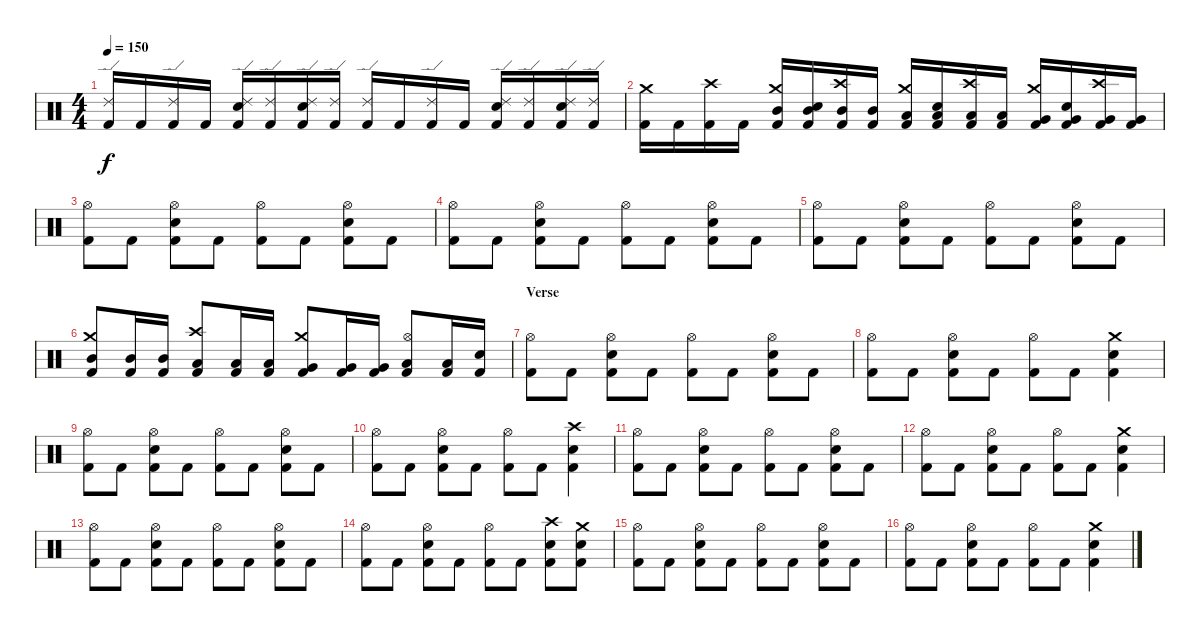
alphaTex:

\track "" {instrument percussion}
\staff {score}
\articulation defaults
\ts (4 4)
\tempo 150
\clef neutral
\ks c
("Ride (edge) 2" "Kick (hit) 2").16{dy f} "Kick (hit) 2".16 ("Ride (edge) 2" "Kick (hit) 2").16 "Kick (hit) 2".16 ("Ride (edge) 2" "Electric Snare (hit)" "Kick (hit) 2").16 ("Ride (edge) 2" "Kick (hit) 2").16 ("Ride (edge) 2" "Electric Snare (hit)" "Kick (hit) 2").16 ("Ride (edge) 2" "Kick (hit) 2").16 ("Ride (edge) 2" "Kick (hit) 2").16 "Kick (hit) 2".16 ("Ride (edge) 2" "Kick (hit) 2").16 "Kick (hit) 2".16 ("Ride (edge) 2" "Electric Snare (hit)" "Kick (hit) 2").16 ("Ride (edge) 2" "Kick (hit) 2").16 ("Ride (edge) 2" "Electric Snare (hit)" "Kick (hit) 2").16 ("Ride (edge) 2" "Kick (hit) 2").16 |
("Crash medium (hit)" "Kick (hit) 2").16 "Kick (hit) 2".16 ("Crash high (hit)" "Kick (hit) 2").16 "Kick (hit) 2".16 ("Crash medium (hit)" "Mid Tom (hit)" "Kick (hit) 2").16 ("Electric Snare (hit)" "Mid Tom (hit)" "Kick (hit) 2").16 ("Crash high (hit)" "Mid Tom (hit)" "Kick (hit) 2").16 ("Mid Tom (hit)" "Kick (hit) 2").16 ("Crash medium (hit)" "Low Tom (hit)" "Kick (hit) 2").16 ("Electric Snare (hit)" "Low Tom (hit)" "Kick (hit) 2").16 ("Crash high (hit)" "Low Tom (hit)" "Kick (hit) 2").16 ("Low Tom (hit)" "Kick (hit) 2").16 ("Crash medium (hit)" "Very Low Tom (hit)" "Kick (hit) 2").16 ("Electric Snare (hit)" "Very Low Tom (hit)" "Kick (hit) 2").16 ("Crash high (hit)" "Very Low Tom (hit)" "Kick (hit) 2").16 ("Very Low Tom (hit)" "Kick (hit) 2").16 |
("Hi-Hat (open)" "Kick (hit) 2").8 "Kick (hit) 2".8 ("Hi-Hat (open)" "Electric Snare (hit)" "Kick (hit) 2").8 "Kick (hit) 2".8 ("Hi-Hat (open)" "Kick (hit) 2").8 "Kick (hit) 2".8 ("Hi-Hat (open)" "Electric Snare (hit)" "Kick (hit) 2").8 "Kick (hit) 2".8 |
("Hi-Hat (open)" "Kick (hit) 2").8 "Kick (hit) 2".8 ("Hi-Hat (open)" "Electric Snare (hit)" "Kick (hit) 2").8 "Kick (hit) 2".8 ("Hi-Hat (open)" "Kick (hit) 2").8 "Kick (hit) 2".8 ("Hi-Hat (open)" "Electric Snare (hit)" "Kick (hit) 2").8 "Kick (hit) 2".8 |
("Hi-Hat (open)" "Kick (hit) 2").8 "Kick (hit) 2".8 ("Hi-Hat (open)" "Electric Snare (hit)" "Kick (hit) 2").8 "Kick (hit) 2".8 ("Hi-Hat (open)" "Kick (hit) 2").8 "Kick (hit) 2".8 ("Hi-Hat (open)" "Electric Snare (hit)" "Kick (hit) 2").8 "Kick (hit) 2".8 |
("Crash medium (hit)" "Mid Tom (hit)" "Kick (hit) 2").8 ("Mid Tom (hit)" "Kick (hit) 2").16 ("Mid Tom (hit)" "Kick (hit) 2").16 ("Crash high (hit)" "Low Tom (hit)" "Kick (hit) 2").8 ("Low Tom (hit)" "Kick (hit) 2").16 ("Low Tom (hit)" "Kick (hit) 2").16 ("Crash medium (hit)" "Very Low Tom (hit)" "Kick (hit) 2").8 ("Very Low Tom (hit)" "Kick (hit) 2").16 ("Very Low Tom (hit)" "Kick (hit) 2").16 ("Hi-Hat (open)" "Low Floor Tom (hit)" "Kick (hit) 2").8 ("Low Floor Tom (hit)" "Kick (hit) 2").16 ("Electric Snare (hit)" "Kick (hit) 2").16 |
\section ("" "Verse")
("Hi-Hat (open)" "Kick (hit) 2").8 "Kick (hit) 2".8 ("Hi-Hat (open)" "Electric Snare (hit)" "Kick (hit) 2").8 "Kick (hit) 2".8 ("Hi-Hat (open)" "Kick (hit) 2").8 "Kick (hit) 2".8 ("Hi-Hat (open)" "Electric Snare (hit)" "Kick (hit) 2").8 "Kick (hit) 2".8 |
("Hi-Hat (open)" "Kick (hit) 2").8 "Kick (hit) 2".8 ("Hi-Hat (open)" "Electric Snare (hit)" "Kick (hit) 2").8 "Kick (hit) 2".8 ("Hi-Hat (open)" "Kick (hit) 2").8 "Kick (hit) 2".8 ("Crash medium (hit)" "Electric Snare (hit)" "Kick (hit) 2").4 |
("Hi-Hat (open)" "Kick (hit) 2").8 "Kick (hit) 2".8 ("Hi-Hat (open)" "Electric Snare (hit)" "Kick (hit) 2").8 "Kick (hit) 2".8 ("Hi-Hat (open)" "Kick (hit) 2").8 "Kick (hit) 2".8 ("Hi-Hat (open)" "Electric Snare (hit)" "Kick (hit) 2").8 "Kick (hit) 2".8 |
("Hi-Hat (open)" "Kick (hit) 2").8 "Kick (hit) 2".8 ("Hi-Hat (open)" "Electric Snare (hit)" "Kick (hit) 2").8 "Kick (hit) 2".8 ("Hi-Hat (open)" "Kick (hit) 2").8 "Kick (hit) 2".8 ("Crash high (hit)" "Electric Snare (hit)" "Kick (hit) 2").4 |
("Hi-Hat (open)" "Kick (hit) 2").8 "Kick (hit) 2".8 ("Hi-Hat (open)" "Electric Snare (hit)" "Kick (hit) 2").8 "Kick (hit) 2".8 ("Hi-Hat (open)" "Kick (hit) 2").8 "Kick (hit) 2".8 ("Hi-Hat (open)" "Electric Snare (hit)" "Kick (hit) 2").8 "Kick (hit) 2".8 |
("Hi-Hat (open)" "Kick (hit) 2").8 "Kick (hit) 2".8 ("Hi-Hat (open)" "Electric Snare (hit)" "Kick (hit) 2").8 "Kick (hit) 2".8 ("Hi-Hat (open)" "Kick (hit) 2").8 "Kick (hit) 2".8 ("Crash medium (hit)" "Electric Snare (hit)" "Kick (hit) 2").4 |
("Hi-Hat (open)" "Kick (hit) 2").8 "Kick (hit) 2".8 ("Hi-Hat (open)" "Electric Snare (hit)" "Kick (hit) 2").8 "Kick (hit) 2".8 ("Hi-Hat (open)" "Kick (hit) 2").8 "Kick (hit) 2".8 ("Hi-Hat (open)" "Electric Snare (hit)" "Kick (hit) 2").8 "Kick (hit) 2".8 |
("Hi-Hat (open)" "Kick (hit) 2").8 "Kick (hit) 2".8 ("Hi-Hat (open)" "Electric Snare (hit)" "Kick (hit) 2").8 "Kick (hit) 2".8 ("Hi-Hat (open)" "Kick (hit) 2").8 "Kick (hit) 2".8 ("Crash high (hit)" "Electric Snare (hit)" "Kick (hit) 2").8 ("Crash medium (hit)" "Electric Snare (hit)" "Kick (hit) 2").8 |
("Hi-Hat (open)" "Kick (hit) 2").8 "Kick (hit) 2".8 ("Hi-Hat (open)" "Electric Snare (hit)" "Kick (hit) 2").8 "Kick (hit) 2".8 ("Hi-Hat (open)" "Kick (hit) 2").8 "Kick (hit) 2".8 ("Hi-Hat (open)" "Electric Snare (hit)" "Kick (hit) 2").8 "Kick (hit) 2".8 |
("Hi-Hat (open)" "Kick (hit) 2").8 "Kick (hit) 2".8 ("Hi-Hat (open)" "Electric Snare (hit)" "Kick (hit) 2").8 "Kick (hit) 2".8 ("Hi-Hat (open)" "Kick (hit) 2").8 "Kick (hit) 2".8 ("Crash medium (hit)" "Electric Snare (hit)" "Kick (hit) 2").4
